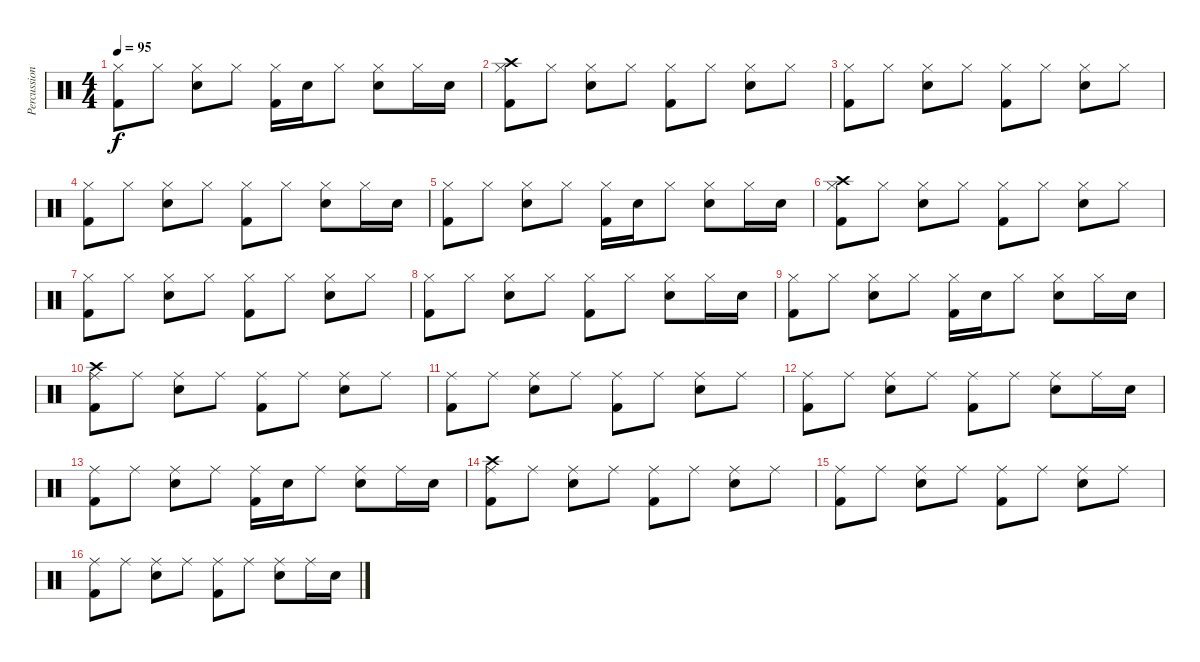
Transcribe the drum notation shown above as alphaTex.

\track ("Percussion" "Percussion") {instrument percussion}
\staff {score}
\articulation defaults
\ts (4 4)
\tempo 95
\clef neutral
\ks c
("Hi-Hat (closed)" "Kick (hit) 2").8{dy f} "Hi-Hat (closed)".8 ("Hi-Hat (closed)" "Electric Snare (hit)").8 "Hi-Hat (closed)".8 ("Hi-Hat (closed)" "Kick (hit) 2").16 "Electric Snare (hit)".16 "Hi-Hat (closed)".8 ("Hi-Hat (closed)" "Electric Snare (hit)").8 "Hi-Hat (closed)".16 "Electric Snare (hit)".16 |
("Crash high (hit)" "Hi-Hat (closed)" "Kick (hit) 2").8 "Hi-Hat (closed)".8 ("Hi-Hat (closed)" "Electric Snare (hit)").8 "Hi-Hat (closed)".8 ("Hi-Hat (closed)" "Kick (hit) 2").8 "Hi-Hat (closed)".8 ("Hi-Hat (closed)" "Electric Snare (hit)").8 "Hi-Hat (closed)".8 |
("Hi-Hat (closed)" "Kick (hit) 2").8 "Hi-Hat (closed)".8 ("Hi-Hat (closed)" "Electric Snare (hit)").8 "Hi-Hat (closed)".8 ("Hi-Hat (closed)" "Kick (hit) 2").8 "Hi-Hat (closed)".8 ("Hi-Hat (closed)" "Electric Snare (hit)").8 "Hi-Hat (closed)".8 |
("Hi-Hat (closed)" "Kick (hit) 2").8 "Hi-Hat (closed)".8 ("Hi-Hat (closed)" "Electric Snare (hit)").8 "Hi-Hat (closed)".8 ("Hi-Hat (closed)" "Kick (hit) 2").8 "Hi-Hat (closed)".8 ("Hi-Hat (closed)" "Electric Snare (hit)").8 "Hi-Hat (closed)".16 "Electric Snare (hit)".16 |
("Hi-Hat (closed)" "Kick (hit) 2").8 "Hi-Hat (closed)".8 ("Hi-Hat (closed)" "Electric Snare (hit)").8 "Hi-Hat (closed)".8 ("Hi-Hat (closed)" "Kick (hit) 2").16 "Electric Snare (hit)".16 "Hi-Hat (closed)".8 ("Hi-Hat (closed)" "Electric Snare (hit)").8 "Hi-Hat (closed)".16 "Electric Snare (hit)".16 |
("Crash high (hit)" "Hi-Hat (closed)" "Kick (hit) 2").8 "Hi-Hat (closed)".8 ("Hi-Hat (closed)" "Electric Snare (hit)").8 "Hi-Hat (closed)".8 ("Hi-Hat (closed)" "Kick (hit) 2").8 "Hi-Hat (closed)".8 ("Hi-Hat (closed)" "Electric Snare (hit)").8 "Hi-Hat (closed)".8 |
("Hi-Hat (closed)" "Kick (hit) 2").8 "Hi-Hat (closed)".8 ("Hi-Hat (closed)" "Electric Snare (hit)").8 "Hi-Hat (closed)".8 ("Hi-Hat (closed)" "Kick (hit) 2").8 "Hi-Hat (closed)".8 ("Hi-Hat (closed)" "Electric Snare (hit)").8 "Hi-Hat (closed)".8 |
("Hi-Hat (closed)" "Kick (hit) 2").8 "Hi-Hat (closed)".8 ("Hi-Hat (closed)" "Electric Snare (hit)").8 "Hi-Hat (closed)".8 ("Hi-Hat (closed)" "Kick (hit) 2").8 "Hi-Hat (closed)".8 ("Hi-Hat (closed)" "Electric Snare (hit)").8 "Hi-Hat (closed)".16 "Electric Snare (hit)".16 |
("Hi-Hat (closed)" "Kick (hit) 2").8 "Hi-Hat (closed)".8 ("Hi-Hat (closed)" "Electric Snare (hit)").8 "Hi-Hat (closed)".8 ("Hi-Hat (closed)" "Kick (hit) 2").16 "Electric Snare (hit)".16 "Hi-Hat (closed)".8 ("Hi-Hat (closed)" "Electric Snare (hit)").8 "Hi-Hat (closed)".16 "Electric Snare (hit)".16 |
("Crash high (hit)" "Ride (middle)" "Kick (hit) 2").8 "Ride (middle)".8 ("Ride (middle)" "Electric Snare (hit)").8 "Ride (middle)".8 ("Ride (middle)" "Kick (hit) 2").8 "Ride (middle)".8 ("Ride (middle)" "Electric Snare (hit)").8 "Ride (middle)".8 |
("Ride (middle)" "Kick (hit) 2").8 "Ride (middle)".8 ("Ride (middle)" "Electric Snare (hit)").8 "Ride (middle)".8 ("Ride (middle)" "Kick (hit) 2").8 "Ride (middle)".8 ("Ride (middle)" "Electric Snare (hit)").8 "Ride (middle)".8 |
("Ride (middle)" "Kick (hit) 2").8 "Ride (middle)".8 ("Ride (middle)" "Electric Snare (hit)").8 "Ride (middle)".8 ("Ride (middle)" "Kick (hit) 2").8 "Ride (middle)".8 ("Ride (middle)" "Electric Snare (hit)").8 "Ride (middle)".16 "Electric Snare (hit)".16 |
("Ride (middle)" "Kick (hit) 2").8 "Ride (middle)".8 ("Ride (middle)" "Electric Snare (hit)").8 "Ride (middle)".8 ("Ride (middle)" "Kick (hit) 2").16 "Electric Snare (hit)".16 "Ride (middle)".8 ("Ride (middle)" "Electric Snare (hit)").8 "Ride (middle)".16 "Electric Snare (hit)".16 |
("Crash high (hit)" "Ride (middle)" "Kick (hit) 2").8 "Ride (middle)".8 ("Ride (middle)" "Electric Snare (hit)").8 "Ride (middle)".8 ("Ride (middle)" "Kick (hit) 2").8 "Ride (middle)".8 ("Ride (middle)" "Electric Snare (hit)").8 "Ride (middle)".8 |
("Ride (middle)" "Kick (hit) 2").8 "Ride (middle)".8 ("Ride (middle)" "Electric Snare (hit)").8 "Ride (middle)".8 ("Ride (middle)" "Kick (hit) 2").8 "Ride (middle)".8 ("Ride (middle)" "Electric Snare (hit)").8 "Ride (middle)".8 |
("Ride (middle)" "Kick (hit) 2").8 "Ride (middle)".8 ("Ride (middle)" "Electric Snare (hit)").8 "Ride (middle)".8 ("Ride (middle)" "Kick (hit) 2").8 "Ride (middle)".8 ("Ride (middle)" "Electric Snare (hit)").8 "Ride (middle)".16 "Electric Snare (hit)".16
